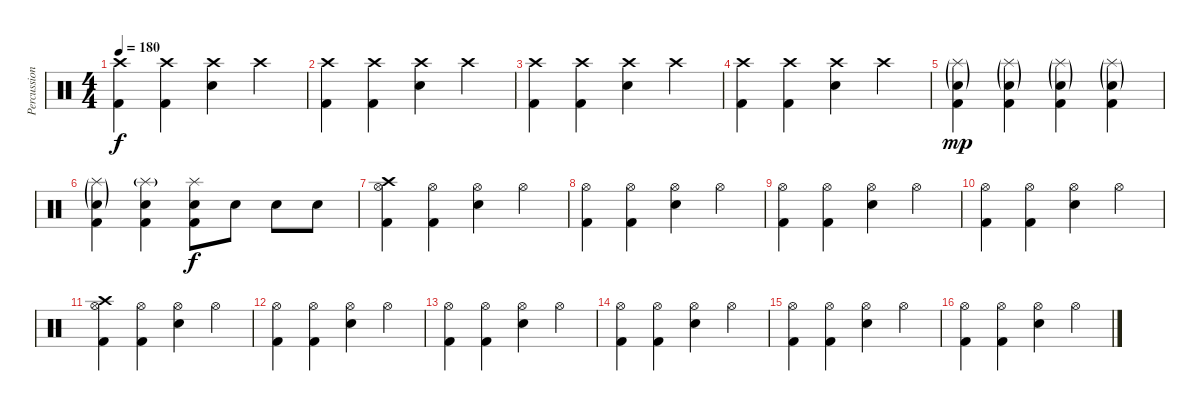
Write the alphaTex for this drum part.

\track ("Percussion" "Percussion") {instrument percussion}
\staff {score}
\articulation defaults
\ts (4 4)
\tempo 180
\clef neutral
\ks c
("Crash high (hit)" "Kick (hit) 2").4{dy f} ("Crash high (hit)" "Kick (hit) 2").4 ("Crash high (hit)" "Electric Snare (hit)").4 "Crash high (hit)".4 |
("Crash high (hit)" "Kick (hit) 2").4 ("Crash high (hit)" "Kick (hit) 2").4 ("Crash high (hit)" "Electric Snare (hit)").4 "Crash high (hit)".4 |
("Crash high (hit)" "Kick (hit) 2").4 ("Crash high (hit)" "Kick (hit) 2").4 ("Crash high (hit)" "Electric Snare (hit)").4 "Crash high (hit)".4 |
("Crash high (hit)" "Kick (hit) 2").4 ("Crash high (hit)" "Kick (hit) 2").4 ("Crash high (hit)" "Electric Snare (hit)").4 "Crash high (hit)".4 |
("Splash (hit)"{g} "Electric Snare (hit)"{g} "Kick (hit) 2").4{dy mp} ("Splash (hit)"{g} "Electric Snare (hit)"{g} "Kick (hit) 2").4 ("Splash (hit)"{g} "Electric Snare (hit)"{g} "Kick (hit) 2").4 ("Splash (hit)"{g} "Electric Snare (hit)"{g} "Kick (hit) 2").4 |
("Splash (hit)"{g} "Electric Snare (hit)"{g} "Kick (hit) 2").4 ("Splash (hit)"{g} "Electric Snare (hit)" "Kick (hit) 2").4 ("Splash (hit)" "Electric Snare (hit)" "Kick (hit) 2").8{dy f} "Electric Snare (hit)".8 "Electric Snare (hit)".8 "Electric Snare (hit)".8 |
("Crash high (hit)" "Hi-Hat (open)" "Kick (hit) 2").4 ("Hi-Hat (open)" "Kick (hit) 2").4 ("Hi-Hat (open)" "Electric Snare (hit)").4 "Hi-Hat (open)".4 |
("Hi-Hat (open)" "Kick (hit) 2").4 ("Hi-Hat (open)" "Kick (hit) 2").4 ("Hi-Hat (open)" "Electric Snare (hit)").4 "Hi-Hat (open)".4 |
("Hi-Hat (open)" "Kick (hit) 2").4 ("Hi-Hat (open)" "Kick (hit) 2").4 ("Hi-Hat (open)" "Electric Snare (hit)").4 "Hi-Hat (open)".4 |
("Hi-Hat (open)" "Kick (hit) 2").4 ("Hi-Hat (open)" "Kick (hit) 2").4 ("Hi-Hat (open)" "Electric Snare (hit)").4 "Hi-Hat (open)".4 |
("Crash high (hit)" "Hi-Hat (open)" "Kick (hit) 2").4 ("Hi-Hat (open)" "Kick (hit) 2").4 ("Hi-Hat (open)" "Electric Snare (hit)").4 "Hi-Hat (open)".4 |
("Hi-Hat (open)" "Kick (hit) 2").4 ("Hi-Hat (open)" "Kick (hit) 2").4 ("Hi-Hat (open)" "Electric Snare (hit)").4 "Hi-Hat (open)".4 |
("Hi-Hat (open)" "Kick (hit) 2").4 ("Hi-Hat (open)" "Kick (hit) 2").4 ("Hi-Hat (open)" "Electric Snare (hit)").4 "Hi-Hat (open)".4 |
("Hi-Hat (open)" "Kick (hit) 2").4 ("Hi-Hat (open)" "Kick (hit) 2").4 ("Hi-Hat (open)" "Electric Snare (hit)").4 "Hi-Hat (open)".4 |
("Hi-Hat (open)" "Kick (hit) 2").4 ("Hi-Hat (open)" "Kick (hit) 2").4 ("Hi-Hat (open)" "Electric Snare (hit)").4 "Hi-Hat (open)".4 |
("Hi-Hat (open)" "Kick (hit) 2").4 ("Hi-Hat (open)" "Kick (hit) 2").4 ("Hi-Hat (open)" "Electric Snare (hit)").4 "Hi-Hat (open)".4
